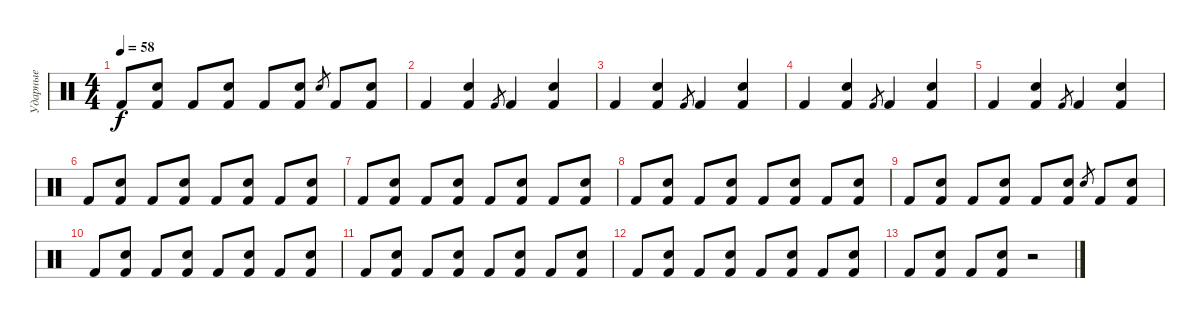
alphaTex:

\track ("Ударные" "Ударные") {instrument percussion}
\staff {score}
\articulation defaults
\ts (4 4)
\tempo 58
\clef neutral
\ks c "Kick (hit) 2".8{dy f}
("Snare (hit) 2" "Kick (hit) 2").8 "Kick (hit) 2".8 ("Snare (hit) 2" "Kick (hit) 2").8 "Kick (hit) 2".8 ("Snare (hit) 2" "Kick (hit) 2").8 "Snare (hit) 2".8{gr} "Kick (hit) 2".8 ("Snare (hit) 2" "Kick (hit) 2").8 |
"Kick (hit) 2".4 ("Snare (hit) 2" "Kick (hit) 2").4 "Kick (hit) 2".8{gr} "Kick (hit) 2".4 ("Snare (hit) 2" "Kick (hit) 2").4 |
"Kick (hit) 2".4 ("Snare (hit) 2" "Kick (hit) 2").4 "Kick (hit) 2".8{gr} "Kick (hit) 2".4 ("Snare (hit) 2" "Kick (hit) 2").4 |
"Kick (hit) 2".4 ("Snare (hit) 2" "Kick (hit) 2").4 "Kick (hit) 2".8{gr} "Kick (hit) 2".4 ("Snare (hit) 2" "Kick (hit) 2").4 |
"Kick (hit) 2".4 ("Snare (hit) 2" "Kick (hit) 2").4 "Kick (hit) 2".8{gr} "Kick (hit) 2".4 ("Snare (hit) 2" "Kick (hit) 2").4 |
"Kick (hit) 2".8 ("Snare (hit) 2" "Kick (hit) 2").8 "Kick (hit) 2".8 ("Snare (hit) 2" "Kick (hit) 2").8 "Kick (hit) 2".8 ("Snare (hit) 2" "Kick (hit) 2").8 "Kick (hit) 2".8 ("Snare (hit) 2" "Kick (hit) 2").8 |
"Kick (hit) 2".8 ("Snare (hit) 2" "Kick (hit) 2").8 "Kick (hit) 2".8 ("Snare (hit) 2" "Kick (hit) 2").8 "Kick (hit) 2".8 ("Snare (hit) 2" "Kick (hit) 2").8 "Kick (hit) 2".8 ("Snare (hit) 2" "Kick (hit) 2").8 |
"Kick (hit) 2".8 ("Snare (hit) 2" "Kick (hit) 2").8 "Kick (hit) 2".8 ("Snare (hit) 2" "Kick (hit) 2").8 "Kick (hit) 2".8 ("Snare (hit) 2" "Kick (hit) 2").8 "Kick (hit) 2".8 ("Snare (hit) 2" "Kick (hit) 2").8 |
"Kick (hit) 2".8 ("Snare (hit) 2" "Kick (hit) 2").8 "Kick (hit) 2".8 ("Snare (hit) 2" "Kick (hit) 2").8 "Kick (hit) 2".8 ("Snare (hit) 2" "Kick (hit) 2").8 "Snare (hit) 2".8{gr} "Kick (hit) 2".8 ("Snare (hit) 2" "Kick (hit) 2").8 |
"Kick (hit) 2".8 ("Snare (hit) 2" "Kick (hit) 2").8 "Kick (hit) 2".8 ("Snare (hit) 2" "Kick (hit) 2").8 "Kick (hit) 2".8 ("Snare (hit) 2" "Kick (hit) 2").8 "Kick (hit) 2".8 ("Snare (hit) 2" "Kick (hit) 2").8 |
"Kick (hit) 2".8 ("Snare (hit) 2" "Kick (hit) 2").8 "Kick (hit) 2".8 ("Snare (hit) 2" "Kick (hit) 2").8 "Kick (hit) 2".8 ("Snare (hit) 2" "Kick (hit) 2").8 "Kick (hit) 2".8 ("Snare (hit) 2" "Kick (hit) 2").8 |
"Kick (hit) 2".8 ("Snare (hit) 2" "Kick (hit) 2").8 "Kick (hit) 2".8 ("Snare (hit) 2" "Kick (hit) 2").8 "Kick (hit) 2".8 ("Snare (hit) 2" "Kick (hit) 2").8 "Kick (hit) 2".8 ("Snare (hit) 2" "Kick (hit) 2").8 |
"Kick (hit) 2".8 ("Snare (hit) 2" "Kick (hit) 2").8 "Kick (hit) 2".8 ("Snare (hit) 2" "Kick (hit) 2").8 r.2
